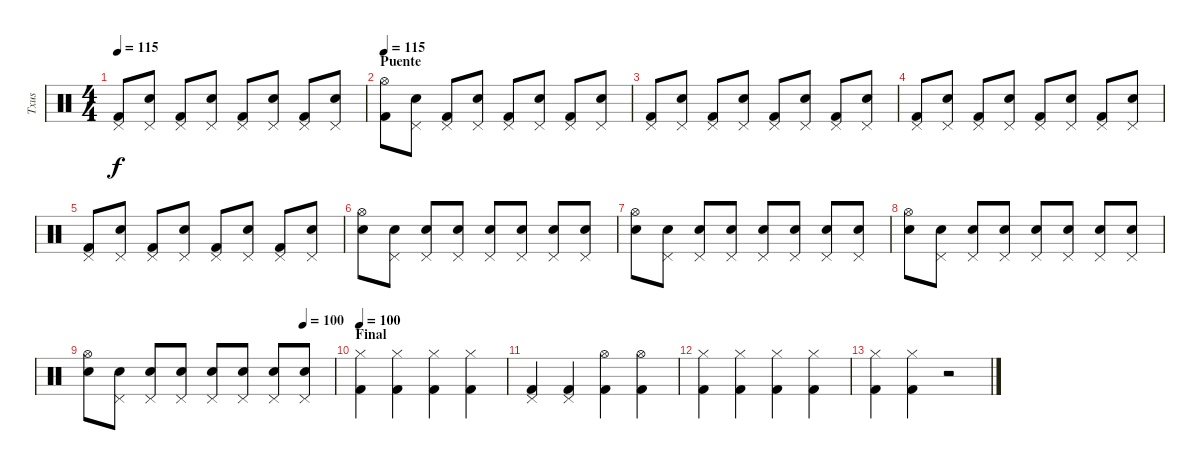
\track ("Txus" "Txus") {instrument percussion}
\staff {score}
\articulation defaults
\ts (4 4)
\tempo 115
\clef neutral
\ks c
("Pedal Hi-Hat (hit)" "Kick (hit) 2").8{dy f} ("Pedal Hi-Hat (hit)" "Snare (hit) 2").8 ("Pedal Hi-Hat (hit)" "Kick (hit) 2").8 ("Pedal Hi-Hat (hit)" "Snare (hit) 2").8 ("Pedal Hi-Hat (hit)" "Kick (hit) 2").8 ("Pedal Hi-Hat (hit)" "Snare (hit) 2").8 ("Pedal Hi-Hat (hit)" "Kick (hit) 2").8 ("Pedal Hi-Hat (hit)" "Snare (hit) 2").8 |
\section ("" "Puente")
\tempo 115
("Hi-Hat (open)" "Kick (hit) 2").8 ("Pedal Hi-Hat (hit)" "Snare (hit) 2").8 ("Pedal Hi-Hat (hit)" "Kick (hit) 2").8 ("Pedal Hi-Hat (hit)" "Snare (hit) 2").8 ("Pedal Hi-Hat (hit)" "Kick (hit) 2").8 ("Pedal Hi-Hat (hit)" "Snare (hit) 2").8 ("Pedal Hi-Hat (hit)" "Kick (hit) 2").8 ("Pedal Hi-Hat (hit)" "Snare (hit) 2").8 |
("Pedal Hi-Hat (hit)" "Kick (hit) 2").8 ("Pedal Hi-Hat (hit)" "Snare (hit) 2").8 ("Pedal Hi-Hat (hit)" "Kick (hit) 2").8 ("Pedal Hi-Hat (hit)" "Snare (hit) 2").8 ("Pedal Hi-Hat (hit)" "Kick (hit) 2").8 ("Pedal Hi-Hat (hit)" "Snare (hit) 2").8 ("Pedal Hi-Hat (hit)" "Kick (hit) 2").8 ("Pedal Hi-Hat (hit)" "Snare (hit) 2").8 |
("Pedal Hi-Hat (hit)" "Kick (hit) 2").8 ("Pedal Hi-Hat (hit)" "Snare (hit) 2").8 ("Pedal Hi-Hat (hit)" "Kick (hit) 2").8 ("Pedal Hi-Hat (hit)" "Snare (hit) 2").8 ("Pedal Hi-Hat (hit)" "Kick (hit) 2").8 ("Pedal Hi-Hat (hit)" "Snare (hit) 2").8 ("Pedal Hi-Hat (hit)" "Kick (hit) 2").8 ("Pedal Hi-Hat (hit)" "Snare (hit) 2").8 |
("Pedal Hi-Hat (hit)" "Kick (hit) 2").8 ("Pedal Hi-Hat (hit)" "Snare (hit) 2").8 ("Pedal Hi-Hat (hit)" "Kick (hit) 2").8 ("Pedal Hi-Hat (hit)" "Snare (hit) 2").8 ("Pedal Hi-Hat (hit)" "Kick (hit) 2").8 ("Pedal Hi-Hat (hit)" "Snare (hit) 2").8 ("Pedal Hi-Hat (hit)" "Kick (hit) 2").8 ("Pedal Hi-Hat (hit)" "Snare (hit) 2").8 |
("Hi-Hat (open)" "Snare (hit) 2").8 ("Pedal Hi-Hat (hit)" "Snare (hit) 2").8 ("Pedal Hi-Hat (hit)" "Snare (hit) 2").8 ("Pedal Hi-Hat (hit)" "Snare (hit) 2").8 ("Pedal Hi-Hat (hit)" "Snare (hit) 2").8 ("Pedal Hi-Hat (hit)" "Snare (hit) 2").8 ("Pedal Hi-Hat (hit)" "Snare (hit) 2").8 ("Pedal Hi-Hat (hit)" "Snare (hit) 2").8 |
("Hi-Hat (open)" "Snare (hit) 2").8 ("Pedal Hi-Hat (hit)" "Snare (hit) 2").8 ("Pedal Hi-Hat (hit)" "Snare (hit) 2").8 ("Pedal Hi-Hat (hit)" "Snare (hit) 2").8 ("Pedal Hi-Hat (hit)" "Snare (hit) 2").8 ("Pedal Hi-Hat (hit)" "Snare (hit) 2").8 ("Pedal Hi-Hat (hit)" "Snare (hit) 2").8 ("Pedal Hi-Hat (hit)" "Snare (hit) 2").8 |
("Hi-Hat (open)" "Snare (hit) 2").8 ("Pedal Hi-Hat (hit)" "Snare (hit) 2").8 ("Pedal Hi-Hat (hit)" "Snare (hit) 2").8 ("Pedal Hi-Hat (hit)" "Snare (hit) 2").8 ("Pedal Hi-Hat (hit)" "Snare (hit) 2").8 ("Pedal Hi-Hat (hit)" "Snare (hit) 2").8 ("Pedal Hi-Hat (hit)" "Snare (hit) 2").8 ("Pedal Hi-Hat (hit)" "Snare (hit) 2").8 |
\tempo (100 0.875)
("Hi-Hat (open)" "Snare (hit) 2").8 ("Pedal Hi-Hat (hit)" "Snare (hit) 2").8 ("Pedal Hi-Hat (hit)" "Snare (hit) 2").8 ("Pedal Hi-Hat (hit)" "Snare (hit) 2").8 ("Pedal Hi-Hat (hit)" "Snare (hit) 2").8 ("Pedal Hi-Hat (hit)" "Snare (hit) 2").8 ("Pedal Hi-Hat (hit)" "Snare (hit) 2").8 ("Pedal Hi-Hat (hit)" "Snare (hit) 2").8 |
\section ("" "Final")
\tempo 100
("Hi-Hat (closed)" "Kick (hit) 2").4{volume 11} ("Hi-Hat (closed)" "Kick (hit) 2").4 ("Hi-Hat (closed)" "Kick (hit) 2").4 ("Hi-Hat (closed)" "Kick (hit) 2").4 |
("Pedal Hi-Hat (hit)" "Kick (hit) 2").4 ("Pedal Hi-Hat (hit)" "Kick (hit) 2").4 ("Hi-Hat (open)" "Kick (hit) 2").4 ("Hi-Hat (open)" "Kick (hit) 2").4 |
("Hi-Hat (closed)" "Kick (hit) 2").4 ("Hi-Hat (closed)" "Kick (hit) 2").4 ("Hi-Hat (closed)" "Kick (hit) 2").4 ("Hi-Hat (closed)" "Kick (hit) 2").4 |
("Hi-Hat (closed)" "Kick (hit) 2").4 ("Hi-Hat (closed)" "Kick (hit) 2").4 r.2
